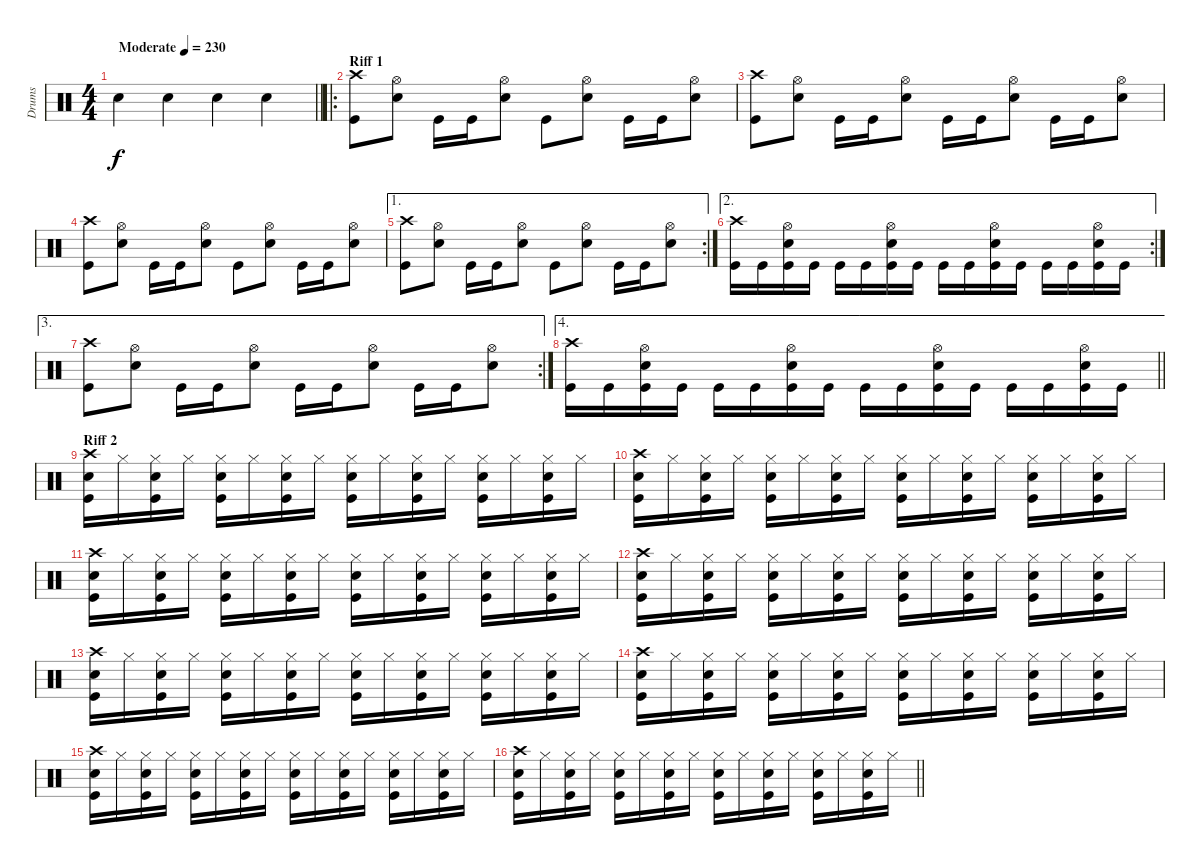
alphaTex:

\track ("Drums" "Drums") {instrument percussion}
\staff {score}
\articulation defaults
\ts (4 4)
\tempo (230 "Moderate")
\clef neutral
\barLineRight lightlight
\ks c "Snare (hit) 2".4{dy f} "Snare (hit) 2".4 "Snare (hit) 2".4 "Snare (hit) 2".4
|
\ro
\section ("" "Riff 1")
("Crash high (hit)" "Kick (hit)").8 ("Hi-Hat (open)" "Snare (hit) 2").8 "Kick (hit)".16 "Kick (hit)".16 ("Hi-Hat (open)" "Snare (hit) 2").8 "Kick (hit)".8 ("Hi-Hat (open)" "Snare (hit) 2").8 "Kick (hit)".16 "Kick (hit)".16 ("Hi-Hat (open)" "Snare (hit) 2").8 |
("Crash high (hit)" "Kick (hit)").8 ("Hi-Hat (open)" "Snare (hit) 2").8 "Kick (hit)".16 "Kick (hit)".16 ("Hi-Hat (open)" "Snare (hit) 2").8 "Kick (hit)".16 "Kick (hit)".16 ("Hi-Hat (open)" "Snare (hit) 2").8 "Kick (hit)".16 "Kick (hit)".16 ("Hi-Hat (open)" "Snare (hit) 2").8 |
("Crash high (hit)" "Kick (hit)").8 ("Hi-Hat (open)" "Snare (hit) 2").8 "Kick (hit)".16 "Kick (hit)".16 ("Hi-Hat (open)" "Snare (hit) 2").8 "Kick (hit)".8 ("Hi-Hat (open)" "Snare (hit) 2").8 "Kick (hit)".16 "Kick (hit)".16 ("Hi-Hat (open)" "Snare (hit) 2").8 |
\ae 1
\rc 2
("Crash high (hit)" "Kick (hit)").8 ("Hi-Hat (open)" "Snare (hit) 2").8 "Kick (hit)".16 "Kick (hit)".16 ("Hi-Hat (open)" "Snare (hit) 2").8 "Kick (hit)".8 ("Hi-Hat (open)" "Snare (hit) 2").8 "Kick (hit)".16 "Kick (hit)".16 ("Hi-Hat (open)" "Snare (hit) 2").8 |
\ae 2
\rc 2
("Crash high (hit)" "Kick (hit)").16 "Kick (hit)".16 ("Hi-Hat (open)" "Snare (hit) 2" "Kick (hit)").16 "Kick (hit)".16 "Kick (hit)".16 "Kick (hit)".16 ("Hi-Hat (open)" "Snare (hit) 2" "Kick (hit)").16 "Kick (hit)".16 "Kick (hit)".16 "Kick (hit)".16 ("Hi-Hat (open)" "Snare (hit) 2" "Kick (hit)").16 "Kick (hit)".16 "Kick (hit)".16 "Kick (hit)".16 ("Hi-Hat (open)" "Snare (hit) 2" "Kick (hit)").16 "Kick (hit)".16 |
\ae 3
\rc 2
("Crash high (hit)" "Kick (hit)").8 ("Hi-Hat (open)" "Snare (hit) 2").8 "Kick (hit)".16 "Kick (hit)".16 ("Hi-Hat (open)" "Snare (hit) 2").8 "Kick (hit)".16 "Kick (hit)".16 ("Hi-Hat (open)" "Snare (hit) 2").8 "Kick (hit)".16 "Kick (hit)".16 ("Hi-Hat (open)" "Snare (hit) 2").8 |
\ae 4
\barLineRight lightlight
("Crash high (hit)" "Kick (hit)").16 "Kick (hit)".16 ("Hi-Hat (open)" "Snare (hit) 2" "Kick (hit)").16 "Kick (hit)".16 "Kick (hit)".16 "Kick (hit)".16 ("Hi-Hat (open)" "Snare (hit) 2" "Kick (hit)").16 "Kick (hit)".16 "Kick (hit)".16 "Kick (hit)".16 ("Hi-Hat (open)" "Snare (hit) 2" "Kick (hit)").16 "Kick (hit)".16 "Kick (hit)".16 "Kick (hit)".16 ("Hi-Hat (open)" "Snare (hit) 2" "Kick (hit)").16 "Kick (hit)".16 |
\section ("" "Riff 2")
("Crash high (hit)" "Snare (hit) 2" "Kick (hit)").16 "Hi-Hat (closed)".16 ("Hi-Hat (closed)" "Snare (hit) 2" "Kick (hit)").16 "Hi-Hat (closed)".16 ("Hi-Hat (closed)" "Snare (hit) 2" "Kick (hit)").16 "Hi-Hat (closed)".16 ("Hi-Hat (closed)" "Snare (hit) 2" "Kick (hit)").16 "Hi-Hat (closed)".16 ("Hi-Hat (closed)" "Snare (hit) 2" "Kick (hit)").16 "Hi-Hat (closed)".16 ("Hi-Hat (closed)" "Snare (hit) 2" "Kick (hit)").16 "Hi-Hat (closed)".16 ("Hi-Hat (closed)" "Snare (hit) 2" "Kick (hit)").16 "Hi-Hat (closed)".16 ("Hi-Hat (closed)" "Snare (hit) 2" "Kick (hit)").16 "Hi-Hat (closed)".16 |
("Crash high (hit)" "Snare (hit) 2" "Kick (hit)").16 "Hi-Hat (closed)".16 ("Hi-Hat (closed)" "Snare (hit) 2" "Kick (hit)").16 "Hi-Hat (closed)".16 ("Hi-Hat (closed)" "Snare (hit) 2" "Kick (hit)").16 "Hi-Hat (closed)".16 ("Hi-Hat (closed)" "Snare (hit) 2" "Kick (hit)").16 "Hi-Hat (closed)".16 ("Hi-Hat (closed)" "Snare (hit) 2" "Kick (hit)").16 "Hi-Hat (closed)".16 ("Hi-Hat (closed)" "Snare (hit) 2" "Kick (hit)").16 "Hi-Hat (closed)".16 ("Hi-Hat (closed)" "Snare (hit) 2" "Kick (hit)").16 "Hi-Hat (closed)".16 ("Hi-Hat (closed)" "Snare (hit) 2" "Kick (hit)").16 "Hi-Hat (closed)".16 |
("Crash high (hit)" "Snare (hit) 2" "Kick (hit)").16 "Hi-Hat (closed)".16 ("Hi-Hat (closed)" "Snare (hit) 2" "Kick (hit)").16 "Hi-Hat (closed)".16 ("Hi-Hat (closed)" "Snare (hit) 2" "Kick (hit)").16 "Hi-Hat (closed)".16 ("Hi-Hat (closed)" "Snare (hit) 2" "Kick (hit)").16 "Hi-Hat (closed)".16 ("Hi-Hat (closed)" "Snare (hit) 2" "Kick (hit)").16 "Hi-Hat (closed)".16 ("Hi-Hat (closed)" "Snare (hit) 2" "Kick (hit)").16 "Hi-Hat (closed)".16 ("Hi-Hat (closed)" "Snare (hit) 2" "Kick (hit)").16 "Hi-Hat (closed)".16 ("Hi-Hat (closed)" "Snare (hit) 2" "Kick (hit)").16 "Hi-Hat (closed)".16 |
("Crash high (hit)" "Snare (hit) 2" "Kick (hit)").16 "Hi-Hat (closed)".16 ("Hi-Hat (closed)" "Snare (hit) 2" "Kick (hit)").16 "Hi-Hat (closed)".16 ("Hi-Hat (closed)" "Snare (hit) 2" "Kick (hit)").16 "Hi-Hat (closed)".16 ("Hi-Hat (closed)" "Snare (hit) 2" "Kick (hit)").16 "Hi-Hat (closed)".16 ("Hi-Hat (closed)" "Snare (hit) 2" "Kick (hit)").16 "Hi-Hat (closed)".16 ("Hi-Hat (closed)" "Snare (hit) 2" "Kick (hit)").16 "Hi-Hat (closed)".16 ("Hi-Hat (closed)" "Snare (hit) 2" "Kick (hit)").16 "Hi-Hat (closed)".16 ("Hi-Hat (closed)" "Snare (hit) 2" "Kick (hit)").16 "Hi-Hat (closed)".16 |
("Crash high (hit)" "Snare (hit) 2" "Kick (hit)").16 "Hi-Hat (closed)".16 ("Hi-Hat (closed)" "Snare (hit) 2" "Kick (hit)").16 "Hi-Hat (closed)".16 ("Hi-Hat (closed)" "Snare (hit) 2" "Kick (hit)").16 "Hi-Hat (closed)".16 ("Hi-Hat (closed)" "Snare (hit) 2" "Kick (hit)").16 "Hi-Hat (closed)".16 ("Hi-Hat (closed)" "Snare (hit) 2" "Kick (hit)").16 "Hi-Hat (closed)".16 ("Hi-Hat (closed)" "Snare (hit) 2" "Kick (hit)").16 "Hi-Hat (closed)".16 ("Hi-Hat (closed)" "Snare (hit) 2" "Kick (hit)").16 "Hi-Hat (closed)".16 ("Hi-Hat (closed)" "Snare (hit) 2" "Kick (hit)").16 "Hi-Hat (closed)".16 |
("Crash high (hit)" "Snare (hit) 2" "Kick (hit)").16 "Hi-Hat (closed)".16 ("Hi-Hat (closed)" "Snare (hit) 2" "Kick (hit)").16 "Hi-Hat (closed)".16 ("Hi-Hat (closed)" "Snare (hit) 2" "Kick (hit)").16 "Hi-Hat (closed)".16 ("Hi-Hat (closed)" "Snare (hit) 2" "Kick (hit)").16 "Hi-Hat (closed)".16 ("Hi-Hat (closed)" "Snare (hit) 2" "Kick (hit)").16 "Hi-Hat (closed)".16 ("Hi-Hat (closed)" "Snare (hit) 2" "Kick (hit)").16 "Hi-Hat (closed)".16 ("Hi-Hat (closed)" "Snare (hit) 2" "Kick (hit)").16 "Hi-Hat (closed)".16 ("Hi-Hat (closed)" "Snare (hit) 2" "Kick (hit)").16 "Hi-Hat (closed)".16 |
("Crash high (hit)" "Snare (hit) 2" "Kick (hit)").16 "Hi-Hat (closed)".16 ("Hi-Hat (closed)" "Snare (hit) 2" "Kick (hit)").16 "Hi-Hat (closed)".16 ("Hi-Hat (closed)" "Snare (hit) 2" "Kick (hit)").16 "Hi-Hat (closed)".16 ("Hi-Hat (closed)" "Snare (hit) 2" "Kick (hit)").16 "Hi-Hat (closed)".16 ("Hi-Hat (closed)" "Snare (hit) 2" "Kick (hit)").16 "Hi-Hat (closed)".16 ("Hi-Hat (closed)" "Snare (hit) 2" "Kick (hit)").16 "Hi-Hat (closed)".16 ("Hi-Hat (closed)" "Snare (hit) 2" "Kick (hit)").16 "Hi-Hat (closed)".16 ("Hi-Hat (closed)" "Snare (hit) 2" "Kick (hit)").16 "Hi-Hat (closed)".16 |
\barLineRight lightlight
("Crash high (hit)" "Snare (hit) 2" "Kick (hit)").16 "Hi-Hat (closed)".16 ("Hi-Hat (closed)" "Snare (hit) 2" "Kick (hit)").16 "Hi-Hat (closed)".16 ("Hi-Hat (closed)" "Snare (hit) 2" "Kick (hit)").16 "Hi-Hat (closed)".16 ("Hi-Hat (closed)" "Snare (hit) 2" "Kick (hit)").16 "Hi-Hat (closed)".16 ("Hi-Hat (closed)" "Snare (hit) 2" "Kick (hit)").16 "Hi-Hat (closed)".16 ("Hi-Hat (closed)" "Snare (hit) 2" "Kick (hit)").16 "Hi-Hat (closed)".16 ("Hi-Hat (closed)" "Snare (hit) 2" "Kick (hit)").16 "Hi-Hat (closed)".16 ("Hi-Hat (closed)" "Snare (hit) 2" "Kick (hit)").16 "Hi-Hat (closed)".16
